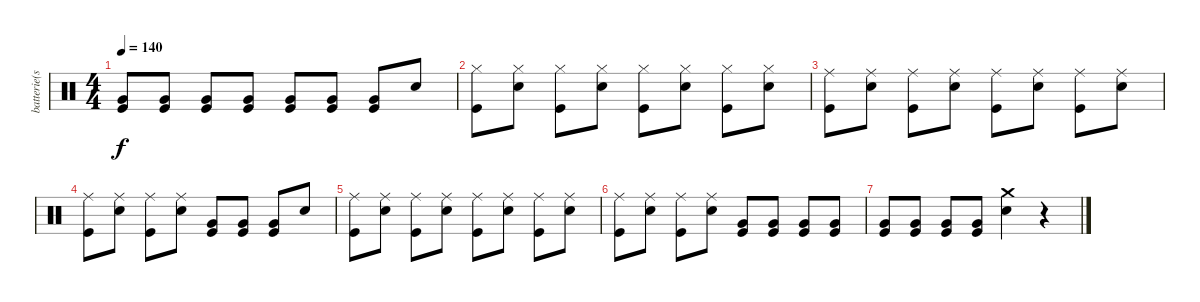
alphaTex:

\track ("batterie(steve)" "batterie(s") {instrument percussion}
\staff {score}
\articulation defaults
\ts (4 4)
\tempo 140
\clef neutral
\ks c
("Very Low Tom (hit)" "Kick (hit)").8{dy f} ("Very Low Tom (hit)" "Kick (hit)").8 ("Very Low Tom (hit)" "Kick (hit)").8 ("Very Low Tom (hit)" "Kick (hit)").8 ("Very Low Tom (hit)" "Kick (hit)").8 ("Very Low Tom (hit)" "Kick (hit)").8 ("Very Low Tom (hit)" "Kick (hit)").8 "Snare (hit) 2".8 |
("Hi-Hat (closed)" "Kick (hit)").8 ("Hi-Hat (closed)" "Snare (hit) 2").8 ("Hi-Hat (closed)" "Kick (hit)").8 ("Hi-Hat (closed)" "Snare (hit) 2").8 ("Hi-Hat (closed)" "Kick (hit)").8 ("Hi-Hat (closed)" "Snare (hit) 2").8 ("Hi-Hat (closed)" "Kick (hit)").8 ("Hi-Hat (closed)" "Snare (hit) 2").8 |
("Ride (middle)" "Kick (hit)").8 ("Ride (middle)" "Snare (hit) 2").8 ("Ride (middle)" "Kick (hit)").8 ("Ride (middle)" "Snare (hit) 2").8 ("Ride (middle)" "Kick (hit)").8 ("Ride (middle)" "Snare (hit) 2").8 ("Ride (middle)" "Kick (hit)").8 ("Ride (middle)" "Snare (hit) 2").8 |
("Ride (middle)" "Kick (hit)").8 ("Ride (middle)" "Snare (hit) 2").8 ("Ride (middle)" "Kick (hit)").8 ("Ride (middle)" "Snare (hit) 2").8 ("Very Low Tom (hit)" "Kick (hit)").8 ("Very Low Tom (hit)" "Kick (hit)").8 ("Very Low Tom (hit)" "Kick (hit)").8 "Snare (hit) 2".8 |
("Ride (middle)" "Kick (hit)").8 ("Ride (middle)" "Snare (hit) 2").8 ("Ride (middle)" "Kick (hit)").8 ("Ride (middle)" "Snare (hit) 2").8 ("Ride (middle)" "Kick (hit)").8 ("Ride (middle)" "Snare (hit) 2").8 ("Ride (middle)" "Kick (hit)").8 ("Ride (middle)" "Snare (hit) 2").8 |
("Ride (middle)" "Kick (hit)").8 ("Ride (middle)" "Snare (hit) 2").8 ("Ride (middle)" "Kick (hit)").8 ("Ride (middle)" "Snare (hit) 2").8 ("Very Low Tom (hit)" "Kick (hit)").8 ("Very Low Tom (hit)" "Kick (hit)").8 ("Very Low Tom (hit)" "Kick (hit)").8 ("Very Low Tom (hit)" "Kick (hit)").8 |
("Very Low Tom (hit)" "Kick (hit)").8 ("Very Low Tom (hit)" "Kick (hit)").8 ("Very Low Tom (hit)" "Kick (hit)").8 ("Very Low Tom (hit)" "Kick (hit)").8 ("Crash medium (hit)" "Snare (hit) 2").4 r.4
